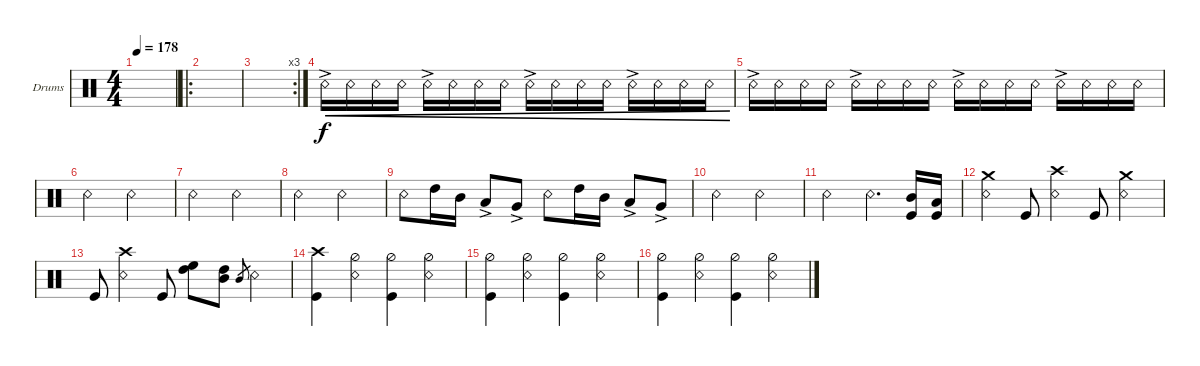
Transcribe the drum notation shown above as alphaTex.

\defaultSystemsLayout 4
\bracketExtendMode groupsimilarinstruments
\firstSystemTrackNameOrientation horizontal
\otherSystemsTrackNameOrientation horizontal
\track ("Drumkit" "Drums") {instrument percussion}
\staff {score}
\articulation defaults
\ts (4 4)
\tempo 178
\clef neutral
\ks c
|
\ro
\scale
0.489177 |
\rc 3
\scale
0.268398 |
\scale
0.242424 "Snare (rim shot)"{ac}.16{cre} "Snare (rim shot)".16{cre} "Snare (rim shot)".16{cre} "Snare (rim shot)".16{cre} "Snare (rim shot)"{ac}.16{cre} "Snare (rim shot)".16{cre} "Snare (rim shot)".16{cre} "Snare (rim shot)".16{cre} "Snare (rim shot)"{ac}.16{cre} "Snare (rim shot)".16{cre} "Snare (rim shot)".16{cre} "Snare (rim shot)".16{cre} "Snare (rim shot)"{ac}.16{cre} "Snare (rim shot)".16{cre} "Snare (rim shot)".16{cre} "Snare (rim shot)".16{cre} |
"Snare (rim shot)"{ac}.16 "Snare (rim shot)".16 "Snare (rim shot)".16 "Snare (rim shot)".16 "Snare (rim shot)"{ac}.16 "Snare (rim shot)".16 "Snare (rim shot)".16 "Snare (rim shot)".16 "Snare (rim shot)"{ac}.16 "Snare (rim shot)".16 "Snare (rim shot)".16 "Snare (rim shot)".16 "Snare (rim shot)"{ac}.16 "Snare (rim shot)".16 "Snare (rim shot)".16 "Snare (rim shot)".16 |
"Snare (rim shot)".2 "Snare (rim shot)".2 |
"Snare (rim shot)".2 "Snare (rim shot)".2 |
"Snare (rim shot)".2 "Snare (rim shot)".2 |
"Snare (rim shot)".8 "High Tom (hit)".16 "Mid Tom (hit)".16 "Low Tom (hit)"{ac}.8 "Very Low Tom (hit)"{ac}.8 "Snare (rim shot)".8 "High Tom (hit)".16 "Mid Tom (hit)".16 "Low Tom (hit)"{ac}.8 "Very Low Tom (hit)"{ac}.8 |
"Snare (rim shot)".2 "Snare (rim shot)".2 |
"Snare (rim shot)".2 "Snare (rim shot)".4{d} ("Mid Tom (hit)" "Kick (hit)").16 ("Low Tom (hit)" "Kick (hit)").16 |
("Crash medium (hit)" "Snare (rim shot)").4 "Kick (hit)".8 ("Snare (rim shot)" "Crash high (hit)").4 "Kick (hit)".8 ("Snare (rim shot)" "Crash medium (hit)").4 |
"Kick (hit)".8 ("Snare (rim shot)" "Crash high (hit)").4 "Kick (hit)".8 ("High Tom (hit)" "High Floor Tom (hit)").8 ("High Tom (hit)" "Mid Tom (hit)").8 "Mid Tom (hit)".8{gr} "Snare (rim shot)".4 |
("Kick (hit)" "Crash high (hit)").4 ("Hi-Hat (half)" "Snare (rim shot)").4 ("Kick (hit)" "Hi-Hat (half)").4 ("Hi-Hat (half)" "Snare (rim shot)").4 |
("Kick (hit)" "Hi-Hat (half)").4 ("Hi-Hat (half)" "Snare (rim shot)").4 ("Kick (hit)" "Hi-Hat (half)").4 ("Hi-Hat (half)" "Snare (rim shot)").4 |
("Kick (hit)" "Hi-Hat (half)").4 ("Hi-Hat (half)" "Snare (rim shot)").4 ("Kick (hit)" "Hi-Hat (half)").4 ("Hi-Hat (half)" "Snare (rim shot)").4
